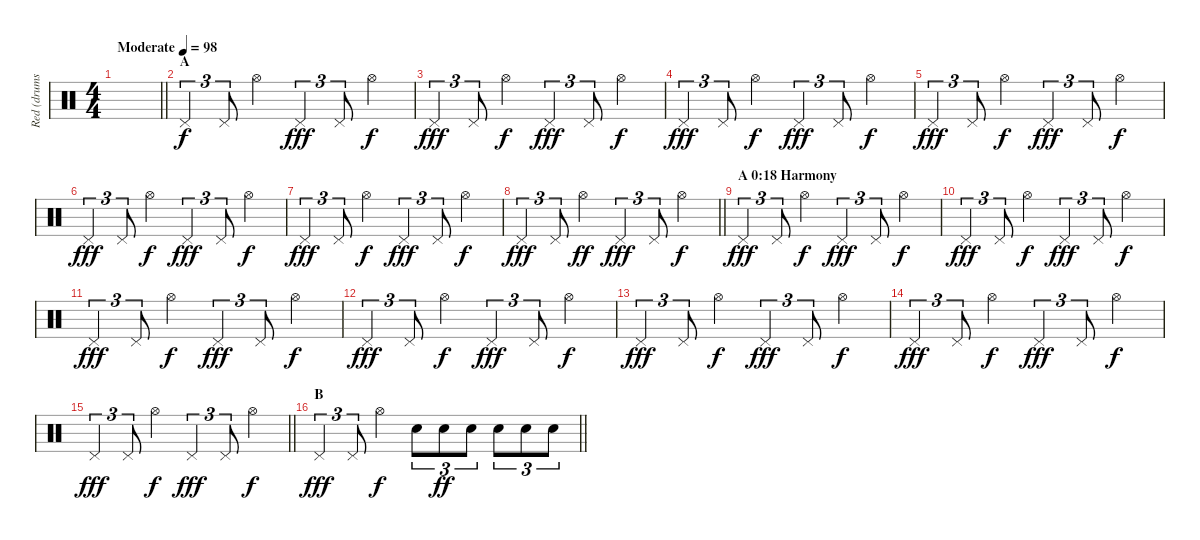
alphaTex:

\track ("Red (drums)" "Red (drums") {instrument percussion}
\staff {score}
\articulation defaults
\ts (4 4)
\tempo (98 "Moderate")
\clef neutral
\barLineRight lightlight
\ks c
|
\section ("" "A")
"Pedal Hi-Hat (hit)".4{tu (3 2)} "Pedal Hi-Hat (hit)".8{tu (3 2)} "Hi-Hat (open)".4{dy f} "Pedal Hi-Hat (hit)".4{tu (3 2) dy fff} "Pedal Hi-Hat (hit)".8{tu (3 2)} "Hi-Hat (open)".4{dy f} |
"Pedal Hi-Hat (hit)".4{tu (3 2) dy fff} "Pedal Hi-Hat (hit)".8{tu (3 2)} "Hi-Hat (open)".4{dy f} "Pedal Hi-Hat (hit)".4{tu (3 2) dy fff} "Pedal Hi-Hat (hit)".8{tu (3 2)} "Hi-Hat (open)".4{dy f} |
"Pedal Hi-Hat (hit)".4{tu (3 2) dy fff} "Pedal Hi-Hat (hit)".8{tu (3 2)} "Hi-Hat (open)".4{dy f} "Pedal Hi-Hat (hit)".4{tu (3 2) dy fff} "Pedal Hi-Hat (hit)".8{tu (3 2)} "Hi-Hat (open)".4{dy f} |
"Pedal Hi-Hat (hit)".4{tu (3 2) dy fff} "Pedal Hi-Hat (hit)".8{tu (3 2)} "Hi-Hat (open)".4{dy f} "Pedal Hi-Hat (hit)".4{tu (3 2) dy fff} "Pedal Hi-Hat (hit)".8{tu (3 2)} "Hi-Hat (open)".4{dy f} |
"Pedal Hi-Hat (hit)".4{tu (3 2) dy fff} "Pedal Hi-Hat (hit)".8{tu (3 2)} "Hi-Hat (open)".4{dy f} "Pedal Hi-Hat (hit)".4{tu (3 2) dy fff} "Pedal Hi-Hat (hit)".8{tu (3 2)} "Hi-Hat (open)".4{dy f} |
"Pedal Hi-Hat (hit)".4{tu (3 2) dy fff} "Pedal Hi-Hat (hit)".8{tu (3 2)} "Hi-Hat (open)".4{dy f} "Pedal Hi-Hat (hit)".4{tu (3 2) dy fff} "Pedal Hi-Hat (hit)".8{tu (3 2)} "Hi-Hat (open)".4{dy f} |
\barLineRight lightlight "Pedal Hi-Hat (hit)".4{tu (3 2) dy fff} "Pedal Hi-Hat (hit)".8{tu (3 2)} "Hi-Hat (open)".4{dy ff} "Pedal Hi-Hat (hit)".4{tu (3 2) dy fff} "Pedal Hi-Hat (hit)".8{tu (3 2)} "Hi-Hat (open)".4{dy f}
|
\section ("" "A 0:18 Harmony")
"Pedal Hi-Hat (hit)".4{tu (3 2) dy fff} "Pedal Hi-Hat (hit)".8{tu (3 2)} "Hi-Hat (open)".4{dy f} "Pedal Hi-Hat (hit)".4{tu (3 2) dy fff} "Pedal Hi-Hat (hit)".8{tu (3 2)} "Hi-Hat (open)".4{dy f} |
"Pedal Hi-Hat (hit)".4{tu (3 2) dy fff} "Pedal Hi-Hat (hit)".8{tu (3 2)} "Hi-Hat (open)".4{dy f} "Pedal Hi-Hat (hit)".4{tu (3 2) dy fff} "Pedal Hi-Hat (hit)".8{tu (3 2)} "Hi-Hat (open)".4{dy f} |
"Pedal Hi-Hat (hit)".4{tu (3 2) dy fff} "Pedal Hi-Hat (hit)".8{tu (3 2)} "Hi-Hat (open)".4{dy f} "Pedal Hi-Hat (hit)".4{tu (3 2) dy fff} "Pedal Hi-Hat (hit)".8{tu (3 2)} "Hi-Hat (open)".4{dy f} |
"Pedal Hi-Hat (hit)".4{tu (3 2) dy fff} "Pedal Hi-Hat (hit)".8{tu (3 2)} "Hi-Hat (open)".4{dy f} "Pedal Hi-Hat (hit)".4{tu (3 2) dy fff} "Pedal Hi-Hat (hit)".8{tu (3 2)} "Hi-Hat (open)".4{dy f} |
"Pedal Hi-Hat (hit)".4{tu (3 2) dy fff} "Pedal Hi-Hat (hit)".8{tu (3 2)} "Hi-Hat (open)".4{dy f} "Pedal Hi-Hat (hit)".4{tu (3 2) dy fff} "Pedal Hi-Hat (hit)".8{tu (3 2)} "Hi-Hat (open)".4{dy f} |
"Pedal Hi-Hat (hit)".4{tu (3 2) dy fff} "Pedal Hi-Hat (hit)".8{tu (3 2)} "Hi-Hat (open)".4{dy f} "Pedal Hi-Hat (hit)".4{tu (3 2) dy fff} "Pedal Hi-Hat (hit)".8{tu (3 2)} "Hi-Hat (open)".4{dy f} |
\barLineRight lightlight "Pedal Hi-Hat (hit)".4{tu (3 2) dy fff} "Pedal Hi-Hat (hit)".8{tu (3 2)} "Hi-Hat (open)".4{dy f} "Pedal Hi-Hat (hit)".4{tu (3 2) dy fff} "Pedal Hi-Hat (hit)".8{tu (3 2)} "Hi-Hat (open)".4{dy f}
|
\section ("" "B")
\barLineRight lightlight "Pedal Hi-Hat (hit)".4{tu (3 2) dy fff} "Pedal Hi-Hat (hit)".8{tu (3 2)} "Hi-Hat (open)".4{dy f} "Electric Snare (hit)".8{tu (3 2)} "Electric Snare (hit)".8{tu (3 2) dy ff} "Electric Snare (hit)".8{tu (3 2)} "Electric Snare (hit)".8{tu (3 2)} "Electric Snare (hit)".8{tu (3 2)} "Electric Snare (hit)".8{tu (3 2)}
